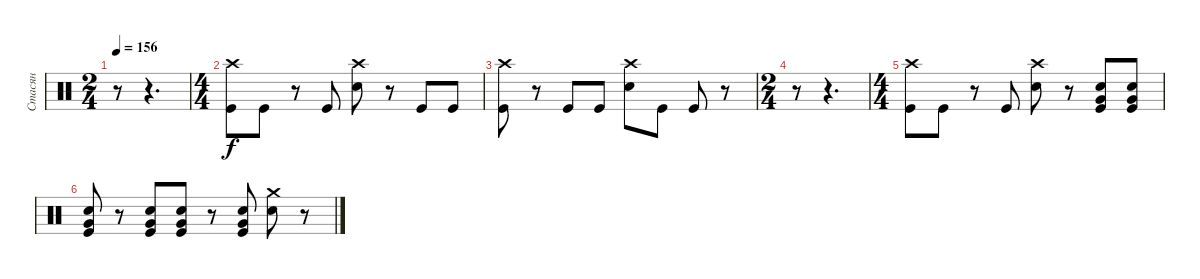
\track ("Стасян" "Стасян") {instrument percussion}
\staff
\articulation defaults
\ts (2 4)
\tempo 156
\clef neutral
\ks c
r.8{dy f} r.4{d} |
\ts (4 4)
("Crash high (hit)" "Kick (hit)").8 "Kick (hit)".8 r.8 "Kick (hit)".8 ("Crash high (hit)" "Snare (hit) 2").8 r.8 "Kick (hit)".8 "Kick (hit)".8 |
("Crash high (hit)" "Kick (hit)").8 r.8 "Kick (hit)".8 "Kick (hit)".8 ("Crash high (hit)" "Snare (hit) 2").8 "Kick (hit)".8 "Kick (hit)".8 r.8 |
\ts (2 4)
r.8 r.4{d} |
\ts (4 4)
("Crash high (hit)" "Kick (hit)").8 "Kick (hit)".8 r.8 "Kick (hit)".8 ("Crash high (hit)" "Snare (hit) 2").8 r.8 ("Snare (hit) 2" "Very Low Tom (hit)" "Kick (hit)").8 ("Snare (hit) 2" "Very Low Tom (hit)" "Kick (hit)").8 |
("Snare (hit) 2" "Kick (hit)" "Very Low Tom (hit)").8 r.8 ("Snare (hit) 2" "Kick (hit)" "Very Low Tom (hit)").8 ("Snare (hit) 2" "Kick (hit)" "Very Low Tom (hit)").8 r.8 ("Snare (hit) 2" "Kick (hit)" "Very Low Tom (hit)").8 ("Crash medium (hit)" "Snare (hit) 2").8 r.8
